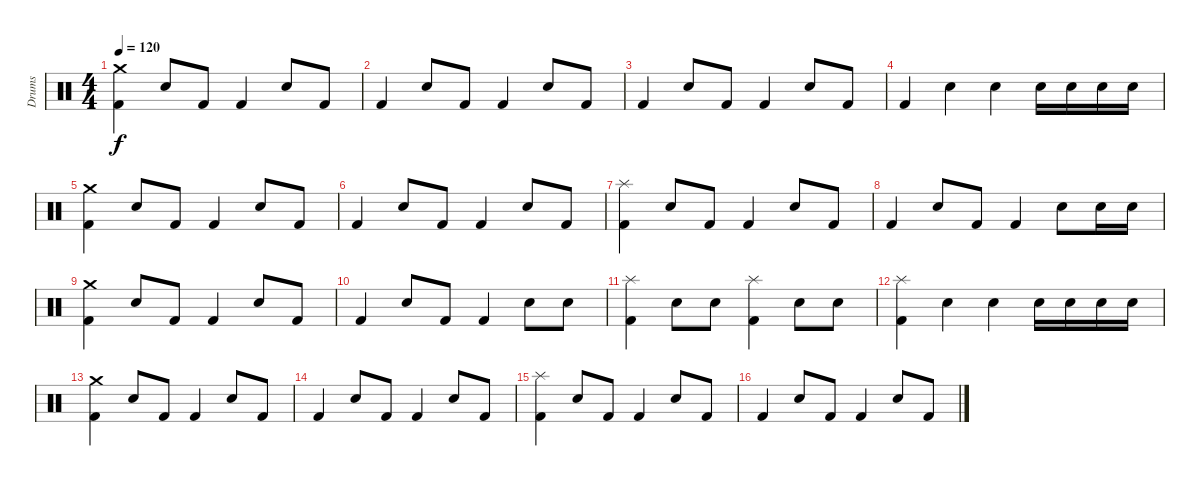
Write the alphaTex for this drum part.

\track ("Drums" "Drums") {instrument percussion}
\staff {score}
\articulation defaults
\ts (4 4)
\tempo 120
\clef neutral
\ks c
("Crash medium (hit)" "Kick (hit) 2").4{dy f} "Snare (hit) 2".8 "Kick (hit) 2".8 "Kick (hit) 2".4 "Snare (hit) 2".8 "Kick (hit) 2".8 |
"Kick (hit) 2".4 "Snare (hit) 2".8 "Kick (hit) 2".8 "Kick (hit) 2".4 "Snare (hit) 2".8 "Kick (hit) 2".8 |
"Kick (hit) 2".4 "Snare (hit) 2".8 "Kick (hit) 2".8 "Kick (hit) 2".4 "Snare (hit) 2".8 "Kick (hit) 2".8 |
"Kick (hit) 2".4 "Snare (hit) 2".4 "Snare (hit) 2".4 "Snare (hit) 2".16 "Snare (hit) 2".16 "Snare (hit) 2".16 "Snare (hit) 2".16 |
("Crash medium (hit)" "Kick (hit) 2").4 "Snare (hit) 2".8 "Kick (hit) 2".8 "Kick (hit) 2".4 "Snare (hit) 2".8 "Kick (hit) 2".8 |
"Kick (hit) 2".4 "Snare (hit) 2".8 "Kick (hit) 2".8 "Kick (hit) 2".4 "Snare (hit) 2".8 "Kick (hit) 2".8 |
("Splash (hit)" "Kick (hit) 2").4 "Snare (hit) 2".8 "Kick (hit) 2".8 "Kick (hit) 2".4 "Snare (hit) 2".8 "Kick (hit) 2".8 |
"Kick (hit) 2".4 "Snare (hit) 2".8 "Kick (hit) 2".8 "Kick (hit) 2".4 "Snare (hit) 2".8 "Snare (hit) 2".16 "Snare (hit) 2".16 |
("Crash medium (hit)" "Kick (hit) 2").4 "Snare (hit) 2".8 "Kick (hit) 2".8 "Kick (hit) 2".4 "Snare (hit) 2".8 "Kick (hit) 2".8 |
"Kick (hit) 2".4 "Snare (hit) 2".8 "Kick (hit) 2".8 "Kick (hit) 2".4 "Snare (hit) 2".8 "Snare (hit) 2".8 |
("Splash (hit)" "Kick (hit) 2").4 "Snare (hit) 2".8 "Snare (hit) 2".8 ("Splash (hit)" "Kick (hit) 2").4 "Snare (hit) 2".8 "Snare (hit) 2".8 |
("Splash (hit)" "Kick (hit) 2").4 "Snare (hit) 2".4 "Snare (hit) 2".4 "Snare (hit) 2".16 "Snare (hit) 2".16 "Snare (hit) 2".16 "Snare (hit) 2".16 |
("Crash medium (hit)" "Kick (hit) 2").4 "Snare (hit) 2".8 "Kick (hit) 2".8 "Kick (hit) 2".4 "Snare (hit) 2".8 "Kick (hit) 2".8 |
"Kick (hit) 2".4 "Snare (hit) 2".8 "Kick (hit) 2".8 "Kick (hit) 2".4 "Snare (hit) 2".8 "Kick (hit) 2".8 |
("Splash (hit)" "Kick (hit) 2").4 "Snare (hit) 2".8 "Kick (hit) 2".8 "Kick (hit) 2".4 "Snare (hit) 2".8 "Kick (hit) 2".8 |
"Kick (hit) 2".4 "Snare (hit) 2".8 "Kick (hit) 2".8 "Kick (hit) 2".4 "Snare (hit) 2".8 "Kick (hit) 2".8
